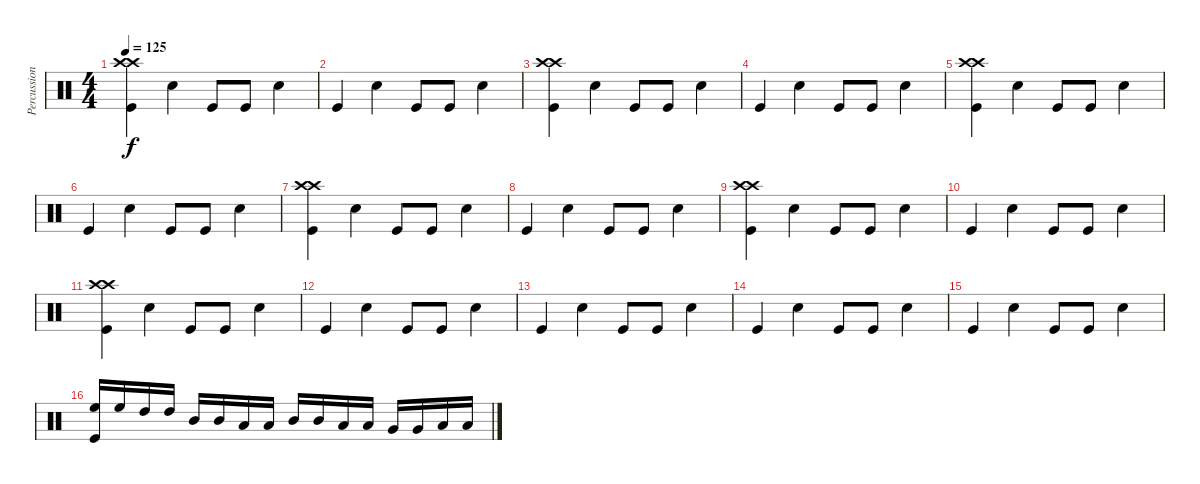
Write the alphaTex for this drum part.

\track ("Percussion" "Percussion") {instrument percussion}
\staff {score}
\articulation defaults
\ts (4 4)
\tempo 125
\clef neutral
\ks c
("Crash high (hit)" "Crash high (hit)" "Kick (hit)").4{dy f} "Snare (hit) 2".4 "Kick (hit)".8 "Kick (hit)".8 "Snare (hit) 2".4 |
"Kick (hit)".4 "Snare (hit) 2".4 "Kick (hit)".8 "Kick (hit)".8 "Snare (hit) 2".4 |
("Crash high (hit)" "Crash high (hit)" "Kick (hit)").4 "Snare (hit) 2".4 "Kick (hit)".8 "Kick (hit)".8 "Snare (hit) 2".4 |
"Kick (hit)".4 "Snare (hit) 2".4 "Kick (hit)".8 "Kick (hit)".8 "Snare (hit) 2".4 |
("Crash high (hit)" "Crash high (hit)" "Kick (hit)").4 "Snare (hit) 2".4 "Kick (hit)".8 "Kick (hit)".8 "Snare (hit) 2".4 |
"Kick (hit)".4 "Snare (hit) 2".4 "Kick (hit)".8 "Kick (hit)".8 "Snare (hit) 2".4 |
("Crash high (hit)" "Crash high (hit)" "Kick (hit)").4 "Snare (hit) 2".4 "Kick (hit)".8 "Kick (hit)".8 "Snare (hit) 2".4 |
"Kick (hit)".4 "Snare (hit) 2".4 "Kick (hit)".8 "Kick (hit)".8 "Snare (hit) 2".4 |
("Crash high (hit)" "Crash high (hit)" "Kick (hit)").4 "Snare (hit) 2".4 "Kick (hit)".8 "Kick (hit)".8 "Snare (hit) 2".4 |
"Kick (hit)".4 "Snare (hit) 2".4 "Kick (hit)".8 "Kick (hit)".8 "Snare (hit) 2".4 |
("Crash high (hit)" "Crash high (hit)" "Kick (hit)").4 "Snare (hit) 2".4 "Kick (hit)".8 "Kick (hit)".8 "Snare (hit) 2".4 |
"Kick (hit)".4 "Snare (hit) 2".4 "Kick (hit)".8 "Kick (hit)".8 "Snare (hit) 2".4 |
"Kick (hit)".4 "Snare (hit) 2".4 "Kick (hit)".8 "Kick (hit)".8 "Snare (hit) 2".4 |
"Kick (hit)".4 "Snare (hit) 2".4 "Kick (hit)".8 "Kick (hit)".8 "Snare (hit) 2".4 |
"Kick (hit)".4 "Snare (hit) 2".4 "Kick (hit)".8 "Kick (hit)".8 "Snare (hit) 2".4 |
("High Floor Tom (hit)" "Kick (hit)").16 "High Floor Tom (hit)".16 "High Tom (hit)".16 "High Tom (hit)".16 "Mid Tom (hit)".16 "Mid Tom (hit)".16 "Low Tom (hit)".16 "Low Tom (hit)".16 "Mid Tom (hit)".16 "Mid Tom (hit)".16 "Low Tom (hit)".16 "Low Tom (hit)".16 "Very Low Tom (hit)".16 "Very Low Tom (hit)".16 "Low Floor Tom (hit)".16 "Low Floor Tom (hit)".16
